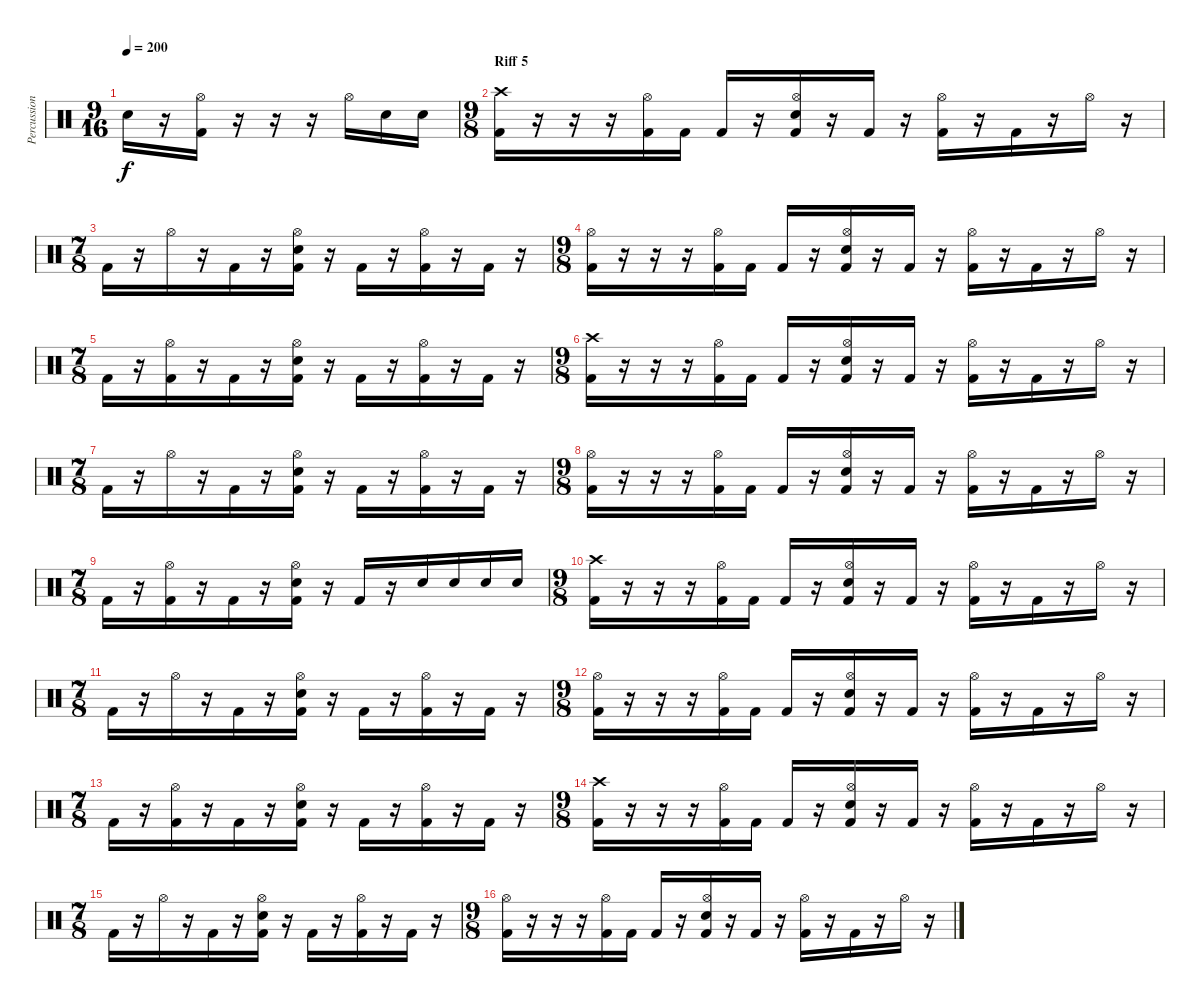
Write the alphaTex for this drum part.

\track ("Percussion" "Percussion") {instrument percussion}
\staff {score}
\articulation defaults
\ts (9 16)
\tempo 200
\clef neutral
\ks c "Electric Snare (hit)".16{dy f}
r.16 ("Hi-Hat (open)" "Kick (hit) 2").16 r.16 r.16 r.16 "Hi-Hat (open)".16 "Electric Snare (hit)".16 "Electric Snare (hit)".16 |
\ts (9 8)
\section ("" "Riff 5")
("Crash high (hit)" "Kick (hit) 2").16 r.16 r.16 r.16 ("Hi-Hat (open)" "Kick (hit) 2").16 "Kick (hit) 2".16 "Kick (hit) 2".16 r.16 ("Hi-Hat (open)" "Electric Snare (hit)" "Kick (hit) 2").16 r.16 "Kick (hit) 2".16 r.16 ("Hi-Hat (open)" "Kick (hit) 2").16 r.16 "Kick (hit) 2".16 r.16 "Hi-Hat (open)".16 r.16 |
\ts (7 8)
"Kick (hit) 2".16 r.16 "Hi-Hat (open)".16 r.16 "Kick (hit) 2".16 r.16 ("Hi-Hat (open)" "Electric Snare (hit)" "Kick (hit) 2").16 r.16 "Kick (hit) 2".16 r.16 ("Hi-Hat (open)" "Kick (hit) 2").16 r.16 "Kick (hit) 2".16 r.16 |
\ts (9 8)
("Hi-Hat (open)" "Kick (hit) 2").16 r.16 r.16 r.16 ("Hi-Hat (open)" "Kick (hit) 2").16 "Kick (hit) 2".16 "Kick (hit) 2".16 r.16 ("Hi-Hat (open)" "Electric Snare (hit)" "Kick (hit) 2").16 r.16 "Kick (hit) 2".16 r.16 ("Hi-Hat (open)" "Kick (hit) 2").16 r.16 "Kick (hit) 2".16 r.16 "Hi-Hat (open)".16 r.16 |
\ts (7 8)
"Kick (hit) 2".16 r.16 ("Hi-Hat (open)" "Kick (hit) 2").16 r.16 "Kick (hit) 2".16 r.16 ("Hi-Hat (open)" "Electric Snare (hit)" "Kick (hit) 2").16 r.16 "Kick (hit) 2".16 r.16 ("Hi-Hat (open)" "Kick (hit) 2").16 r.16 "Kick (hit) 2".16 r.16 |
\ts (9 8)
("Crash high (hit)" "Kick (hit) 2").16 r.16 r.16 r.16 ("Hi-Hat (open)" "Kick (hit) 2").16 "Kick (hit) 2".16 "Kick (hit) 2".16 r.16 ("Hi-Hat (open)" "Electric Snare (hit)" "Kick (hit) 2").16 r.16 "Kick (hit) 2".16 r.16 ("Hi-Hat (open)" "Kick (hit) 2").16 r.16 "Kick (hit) 2".16 r.16 "Hi-Hat (open)".16 r.16 |
\ts (7 8)
"Kick (hit) 2".16 r.16 "Hi-Hat (open)".16 r.16 "Kick (hit) 2".16 r.16 ("Hi-Hat (open)" "Electric Snare (hit)" "Kick (hit) 2").16 r.16 "Kick (hit) 2".16 r.16 ("Hi-Hat (open)" "Kick (hit) 2").16 r.16 "Kick (hit) 2".16 r.16 |
\ts (9 8)
("Hi-Hat (open)" "Kick (hit) 2").16 r.16 r.16 r.16 ("Hi-Hat (open)" "Kick (hit) 2").16 "Kick (hit) 2".16 "Kick (hit) 2".16 r.16 ("Hi-Hat (open)" "Electric Snare (hit)" "Kick (hit) 2").16 r.16 "Kick (hit) 2".16 r.16 ("Hi-Hat (open)" "Kick (hit) 2").16 r.16 "Kick (hit) 2".16 r.16 "Hi-Hat (open)".16 r.16 |
\ts (7 8)
"Kick (hit) 2".16 r.16 ("Hi-Hat (open)" "Kick (hit) 2").16 r.16 "Kick (hit) 2".16 r.16 ("Hi-Hat (open)" "Electric Snare (hit)" "Kick (hit) 2").16 r.16 "Kick (hit) 2".16 r.16 "Electric Snare (hit)".16 "Electric Snare (hit)".16 "Electric Snare (hit)".16 "Electric Snare (hit)".16 |
\ts (9 8)
("Crash high (hit)" "Kick (hit) 2").16 r.16 r.16 r.16 ("Hi-Hat (open)" "Kick (hit) 2").16 "Kick (hit) 2".16 "Kick (hit) 2".16 r.16 ("Hi-Hat (open)" "Electric Snare (hit)" "Kick (hit) 2").16 r.16 "Kick (hit) 2".16 r.16 ("Hi-Hat (open)" "Kick (hit) 2").16 r.16 "Kick (hit) 2".16 r.16 "Hi-Hat (open)".16 r.16 |
\ts (7 8)
"Kick (hit) 2".16 r.16 "Hi-Hat (open)".16 r.16 "Kick (hit) 2".16 r.16 ("Hi-Hat (open)" "Electric Snare (hit)" "Kick (hit) 2").16 r.16 "Kick (hit) 2".16 r.16 ("Hi-Hat (open)" "Kick (hit) 2").16 r.16 "Kick (hit) 2".16 r.16 |
\ts (9 8)
("Hi-Hat (open)" "Kick (hit) 2").16 r.16 r.16 r.16 ("Hi-Hat (open)" "Kick (hit) 2").16 "Kick (hit) 2".16 "Kick (hit) 2".16 r.16 ("Hi-Hat (open)" "Electric Snare (hit)" "Kick (hit) 2").16 r.16 "Kick (hit) 2".16 r.16 ("Hi-Hat (open)" "Kick (hit) 2").16 r.16 "Kick (hit) 2".16 r.16 "Hi-Hat (open)".16 r.16 |
\ts (7 8)
"Kick (hit) 2".16 r.16 ("Hi-Hat (open)" "Kick (hit) 2").16 r.16 "Kick (hit) 2".16 r.16 ("Hi-Hat (open)" "Electric Snare (hit)" "Kick (hit) 2").16 r.16 "Kick (hit) 2".16 r.16 ("Hi-Hat (open)" "Kick (hit) 2").16 r.16 "Kick (hit) 2".16 r.16 |
\ts (9 8)
("Crash high (hit)" "Kick (hit) 2").16 r.16 r.16 r.16 ("Hi-Hat (open)" "Kick (hit) 2").16 "Kick (hit) 2".16 "Kick (hit) 2".16 r.16 ("Hi-Hat (open)" "Electric Snare (hit)" "Kick (hit) 2").16 r.16 "Kick (hit) 2".16 r.16 ("Hi-Hat (open)" "Kick (hit) 2").16 r.16 "Kick (hit) 2".16 r.16 "Hi-Hat (open)".16 r.16 |
\ts (7 8)
"Kick (hit) 2".16 r.16 "Hi-Hat (open)".16 r.16 "Kick (hit) 2".16 r.16 ("Hi-Hat (open)" "Electric Snare (hit)" "Kick (hit) 2").16 r.16 "Kick (hit) 2".16 r.16 ("Hi-Hat (open)" "Kick (hit) 2").16 r.16 "Kick (hit) 2".16 r.16 |
\ts (9 8)
("Hi-Hat (open)" "Kick (hit) 2").16 r.16 r.16 r.16 ("Hi-Hat (open)" "Kick (hit) 2").16 "Kick (hit) 2".16 "Kick (hit) 2".16 r.16 ("Hi-Hat (open)" "Electric Snare (hit)" "Kick (hit) 2").16 r.16 "Kick (hit) 2".16 r.16 ("Hi-Hat (open)" "Kick (hit) 2").16 r.16 "Kick (hit) 2".16 r.16 "Hi-Hat (open)".16 r.16
